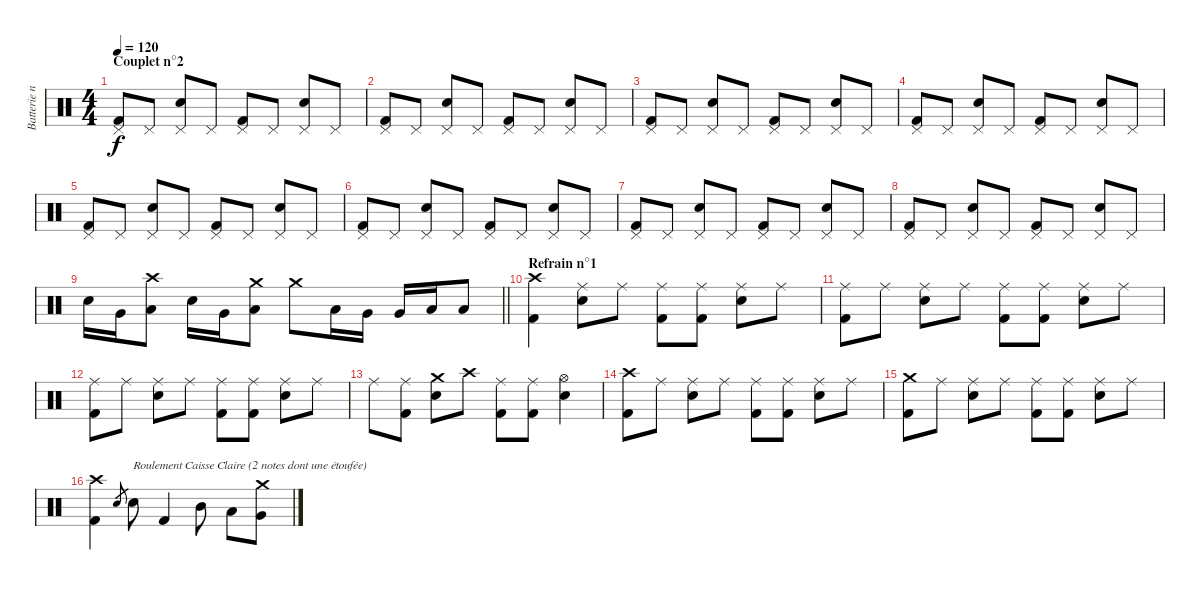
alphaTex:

\track ("Batterie n°3" "Batterie n") {instrument percussion}
\staff {score}
\articulation defaults
\ts (4 4)
\section ("" "Couplet n°2")
\tempo 120
\clef neutral
\ks c
("Pedal Hi-Hat (hit)" "Kick (hit) 2").8{dy f} "Pedal Hi-Hat (hit)".8 ("Pedal Hi-Hat (hit)" "Snare (hit) 2").8 "Pedal Hi-Hat (hit)".8 ("Pedal Hi-Hat (hit)" "Kick (hit) 2").8 "Pedal Hi-Hat (hit)".8 ("Pedal Hi-Hat (hit)" "Snare (hit) 2").8 "Pedal Hi-Hat (hit)".8 |
("Pedal Hi-Hat (hit)" "Kick (hit) 2").8 "Pedal Hi-Hat (hit)".8 ("Pedal Hi-Hat (hit)" "Snare (hit) 2").8 "Pedal Hi-Hat (hit)".8 ("Pedal Hi-Hat (hit)" "Kick (hit) 2").8 "Pedal Hi-Hat (hit)".8 ("Pedal Hi-Hat (hit)" "Snare (hit) 2").8 "Pedal Hi-Hat (hit)".8 |
("Pedal Hi-Hat (hit)" "Kick (hit) 2").8 "Pedal Hi-Hat (hit)".8 ("Pedal Hi-Hat (hit)" "Snare (hit) 2").8 "Pedal Hi-Hat (hit)".8 ("Pedal Hi-Hat (hit)" "Kick (hit) 2").8 "Pedal Hi-Hat (hit)".8 ("Pedal Hi-Hat (hit)" "Snare (hit) 2").8 "Pedal Hi-Hat (hit)".8 |
("Pedal Hi-Hat (hit)" "Kick (hit) 2").8 "Pedal Hi-Hat (hit)".8 ("Pedal Hi-Hat (hit)" "Snare (hit) 2").8 "Pedal Hi-Hat (hit)".8 ("Pedal Hi-Hat (hit)" "Kick (hit) 2").8 "Pedal Hi-Hat (hit)".8 ("Pedal Hi-Hat (hit)" "Snare (hit) 2").8 "Pedal Hi-Hat (hit)".8 |
("Pedal Hi-Hat (hit)" "Kick (hit) 2").8 "Pedal Hi-Hat (hit)".8 ("Pedal Hi-Hat (hit)" "Snare (hit) 2").8 "Pedal Hi-Hat (hit)".8 ("Pedal Hi-Hat (hit)" "Kick (hit) 2").8 "Pedal Hi-Hat (hit)".8 ("Pedal Hi-Hat (hit)" "Snare (hit) 2").8 "Pedal Hi-Hat (hit)".8 |
("Pedal Hi-Hat (hit)" "Kick (hit) 2").8 "Pedal Hi-Hat (hit)".8 ("Pedal Hi-Hat (hit)" "Snare (hit) 2").8 "Pedal Hi-Hat (hit)".8 ("Pedal Hi-Hat (hit)" "Kick (hit) 2").8 "Pedal Hi-Hat (hit)".8 ("Pedal Hi-Hat (hit)" "Snare (hit) 2").8 "Pedal Hi-Hat (hit)".8 |
("Pedal Hi-Hat (hit)" "Kick (hit) 2").8 "Pedal Hi-Hat (hit)".8 ("Pedal Hi-Hat (hit)" "Snare (hit) 2").8 "Pedal Hi-Hat (hit)".8 ("Pedal Hi-Hat (hit)" "Kick (hit) 2").8 "Pedal Hi-Hat (hit)".8 ("Pedal Hi-Hat (hit)" "Snare (hit) 2").8 "Pedal Hi-Hat (hit)".8 |
("Pedal Hi-Hat (hit)" "Kick (hit) 2").8 "Pedal Hi-Hat (hit)".8 ("Pedal Hi-Hat (hit)" "Snare (hit) 2").8 "Pedal Hi-Hat (hit)".8 ("Pedal Hi-Hat (hit)" "Kick (hit) 2").8 "Pedal Hi-Hat (hit)".8 ("Pedal Hi-Hat (hit)" "Snare (hit) 2").8 "Pedal Hi-Hat (hit)".8 |
\barLineRight lightlight "Snare (hit) 2".16 "Very Low Tom (hit)".16
("Crash high (hit)" "Low Tom (hit)").8 "Snare (hit) 2".16 "Very Low Tom (hit)".16 ("Crash medium (hit)" "Low Tom (hit)").8 "Crash medium (hit)".8 "Low Tom (hit)".16 "Very Low Tom (hit)".16 "Very Low Tom (hit)".16 "Low Floor Tom (hit)".16 "Low Floor Tom (hit)".8 |
\section ("" "Refrain n°1")
("Crash high (hit)" "Kick (hit) 2").4 ("Ride (middle)" "Snare (hit) 2").8 "Ride (middle)".8 ("Ride (middle)" "Kick (hit) 2").8 ("Ride (middle)" "Kick (hit) 2").8 ("Ride (middle)" "Snare (hit) 2").8 "Ride (middle)".8 |
("Ride (middle)" "Kick (hit) 2").8 "Ride (middle)".8 ("Ride (middle)" "Snare (hit) 2").8 "Ride (middle)".8 ("Ride (middle)" "Kick (hit) 2").8 ("Ride (middle)" "Kick (hit) 2").8 ("Ride (middle)" "Snare (hit) 2").8 "Ride (middle)".8 |
("Ride (middle)" "Kick (hit) 2").8 "Ride (middle)".8 ("Ride (middle)" "Snare (hit) 2").8 "Ride (middle)".8 ("Ride (middle)" "Kick (hit) 2").8 ("Ride (middle)" "Kick (hit) 2").8 ("Ride (middle)" "Snare (hit) 2").8 "Ride (middle)".8 |
"Ride (middle)".8 ("Ride (middle)" "Kick (hit) 2").8 ("Crash medium (hit)" "Snare (hit) 2").8 "Crash high (hit)".8 ("Ride (middle)" "Kick (hit) 2").8 ("Ride (middle)" "Kick (hit) 2").8 ("Hi-Hat (open)" "Snare (hit) 2").4 |
("Crash high (hit)" "Kick (hit) 2").8 "Ride (middle)".8 ("Ride (middle)" "Snare (hit) 2").8 "Ride (middle)".8 ("Ride (middle)" "Kick (hit) 2").8 ("Ride (middle)" "Kick (hit) 2").8 ("Ride (middle)" "Snare (hit) 2").8 "Ride (middle)".8 |
("Crash medium (hit)" "Kick (hit) 2").8 "Ride (middle)".8 ("Ride (middle)" "Snare (hit) 2").8 "Ride (middle)".8 ("Ride (middle)" "Kick (hit) 2").8 ("Ride (middle)" "Kick (hit) 2").8 ("Ride (middle)" "Snare (hit) 2").8 "Ride (middle)".8 |
("Crash high (hit)" "Kick (hit) 2").4 "Electric Snare (hit)".8{gr} "Snare (hit) 2".8{txt "Roulement Caisse Claire (2 notes dont une étoufée)"} "Kick (hit) 2".4 "Mid Tom (hit)".8 "Low Tom (hit)".8 ("Crash medium (hit)" "Very Low Tom (hit)").8
